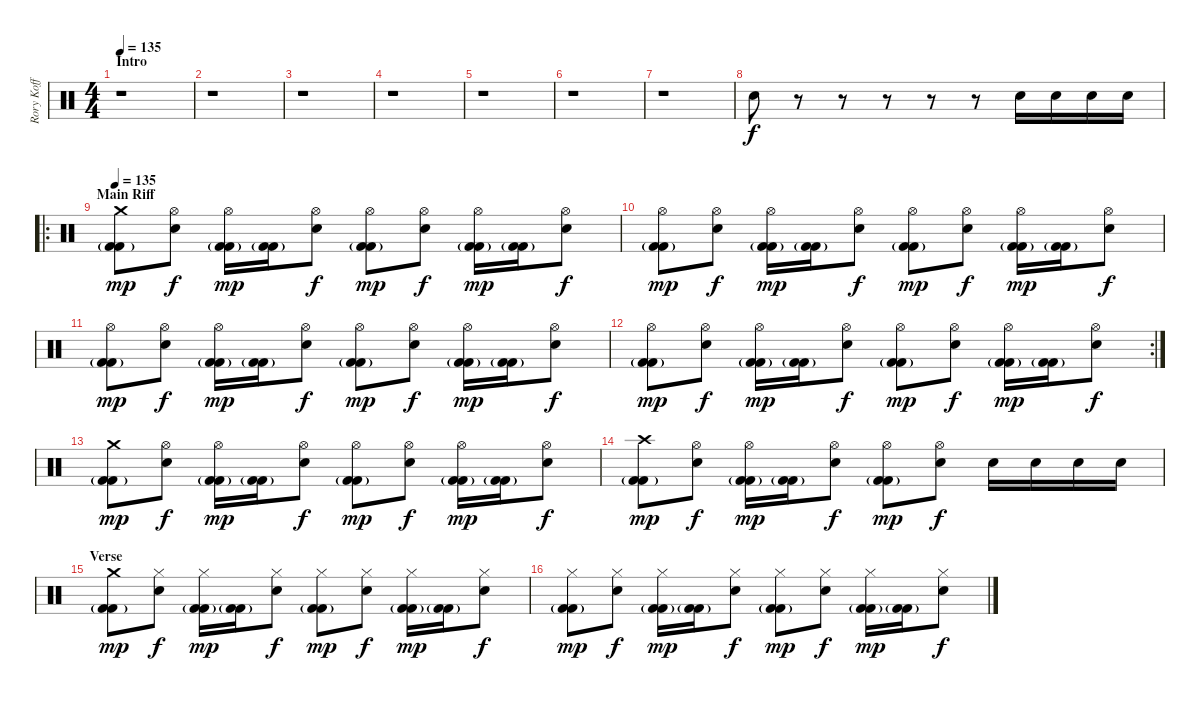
\track ("Rory Koff" "Rory Koff") {instrument percussion}
\staff {score}
\articulation defaults
\ts (4 4)
\section ("" "Intro")
\tempo 135
\tempo 130
\tempo 135
\clef neutral
\ks c
r.1{dy f} |
r.1 |
r.1 |
r.1 |
r.1 |
r.1 |
r.1 |
"Snare (hit) 2".8 r.8 r.8 r.8 r.8 r.8 "Snare (hit) 2".16 "Snare (hit) 2".16 "Snare (hit) 2".16 "Snare (hit) 2".16 |
\ro
\section ("" "Main Riff")
\tempo 135
("Crash medium (hit)" "Kick (hit) 2"{g} "Kick (hit) 2").8{dy mp} ("Hi-Hat (open)" "Snare (hit) 2").8{dy f} ("Hi-Hat (open)" "Kick (hit) 2"{g} "Kick (hit) 2").16{dy mp} ("Kick (hit) 2"{g} "Kick (hit) 2").16 ("Hi-Hat (open)" "Snare (hit) 2").8{dy f} ("Hi-Hat (open)" "Kick (hit) 2"{g} "Kick (hit) 2").8{dy mp} ("Hi-Hat (open)" "Snare (hit) 2").8{dy f} ("Hi-Hat (open)" "Kick (hit) 2"{g} "Kick (hit) 2").16{dy mp} ("Kick (hit) 2"{g} "Kick (hit) 2").16 ("Hi-Hat (open)" "Snare (hit) 2").8{dy f} |
("Hi-Hat (open)" "Kick (hit) 2"{g} "Kick (hit) 2").8{dy mp} ("Hi-Hat (open)" "Snare (hit) 2").8{dy f} ("Hi-Hat (open)" "Kick (hit) 2"{g} "Kick (hit) 2").16{dy mp} ("Kick (hit) 2"{g} "Kick (hit) 2").16 ("Hi-Hat (open)" "Snare (hit) 2").8{dy f} ("Hi-Hat (open)" "Kick (hit) 2"{g} "Kick (hit) 2").8{dy mp} ("Hi-Hat (open)" "Snare (hit) 2").8{dy f} ("Hi-Hat (open)" "Kick (hit) 2"{g} "Kick (hit) 2").16{dy mp} ("Kick (hit) 2"{g} "Kick (hit) 2").16 ("Hi-Hat (open)" "Snare (hit) 2").8{dy f} |
("Hi-Hat (open)" "Kick (hit) 2"{g} "Kick (hit) 2").8{dy mp} ("Hi-Hat (open)" "Snare (hit) 2").8{dy f} ("Hi-Hat (open)" "Kick (hit) 2"{g} "Kick (hit) 2").16{dy mp} ("Kick (hit) 2"{g} "Kick (hit) 2").16 ("Hi-Hat (open)" "Snare (hit) 2").8{dy f} ("Hi-Hat (open)" "Kick (hit) 2"{g} "Kick (hit) 2").8{dy mp} ("Hi-Hat (open)" "Snare (hit) 2").8{dy f} ("Hi-Hat (open)" "Kick (hit) 2"{g} "Kick (hit) 2").16{dy mp} ("Kick (hit) 2"{g} "Kick (hit) 2").16 ("Hi-Hat (open)" "Snare (hit) 2").8{dy f} |
\rc 2
("Hi-Hat (open)" "Kick (hit) 2"{g} "Kick (hit) 2").8{dy mp} ("Hi-Hat (open)" "Snare (hit) 2").8{dy f} ("Hi-Hat (open)" "Kick (hit) 2"{g} "Kick (hit) 2").16{dy mp} ("Kick (hit) 2"{g} "Kick (hit) 2").16 ("Hi-Hat (open)" "Snare (hit) 2").8{dy f} ("Hi-Hat (open)" "Kick (hit) 2"{g} "Kick (hit) 2").8{dy mp} ("Hi-Hat (open)" "Snare (hit) 2").8{dy f} ("Hi-Hat (open)" "Kick (hit) 2"{g} "Kick (hit) 2").16{dy mp} ("Kick (hit) 2"{g} "Kick (hit) 2").16 ("Hi-Hat (open)" "Snare (hit) 2").8{dy f} |
("Crash medium (hit)" "Kick (hit) 2"{g} "Kick (hit) 2").8{dy mp} ("Hi-Hat (open)" "Snare (hit) 2").8{dy f} ("Hi-Hat (open)" "Kick (hit) 2"{g} "Kick (hit) 2").16{dy mp} ("Kick (hit) 2"{g} "Kick (hit) 2").16 ("Hi-Hat (open)" "Snare (hit) 2").8{dy f} ("Hi-Hat (open)" "Kick (hit) 2"{g} "Kick (hit) 2").8{dy mp} ("Hi-Hat (open)" "Snare (hit) 2").8{dy f} ("Hi-Hat (open)" "Kick (hit) 2"{g} "Kick (hit) 2").16{dy mp} ("Kick (hit) 2"{g} "Kick (hit) 2").16 ("Hi-Hat (open)" "Snare (hit) 2").8{dy f} |
("Crash high (hit)" "Kick (hit) 2"{g} "Kick (hit) 2").8{dy mp} ("Hi-Hat (open)" "Snare (hit) 2").8{dy f} ("Hi-Hat (open)" "Kick (hit) 2"{g} "Kick (hit) 2").16{dy mp} ("Kick (hit) 2"{g} "Kick (hit) 2").16 ("Hi-Hat (open)" "Snare (hit) 2").8{dy f} ("Hi-Hat (open)" "Kick (hit) 2"{g} "Kick (hit) 2").8{dy mp} ("Hi-Hat (open)" "Snare (hit) 2").8{dy f} "Snare (hit) 2".16 "Snare (hit) 2".16 "Snare (hit) 2".16 "Snare (hit) 2".16 |
\section ("" "Verse")
("Crash medium (hit)" "Kick (hit) 2"{g} "Kick (hit) 2").8{dy mp} ("Hi-Hat (closed)" "Snare (hit) 2").8{dy f} ("Hi-Hat (closed)" "Kick (hit) 2"{g} "Kick (hit) 2").16{dy mp} ("Kick (hit) 2"{g} "Kick (hit) 2").16 ("Hi-Hat (closed)" "Snare (hit) 2").8{dy f} ("Hi-Hat (closed)" "Kick (hit) 2"{g} "Kick (hit) 2").8{dy mp} ("Hi-Hat (closed)" "Snare (hit) 2").8{dy f} ("Hi-Hat (closed)" "Kick (hit) 2"{g} "Kick (hit) 2").16{dy mp} ("Kick (hit) 2"{g} "Kick (hit) 2").16 ("Hi-Hat (closed)" "Snare (hit) 2").8{dy f} |
("Hi-Hat (closed)" "Kick (hit) 2"{g} "Kick (hit) 2").8{dy mp} ("Hi-Hat (closed)" "Snare (hit) 2").8{dy f} ("Hi-Hat (closed)" "Kick (hit) 2"{g} "Kick (hit) 2").16{dy mp} ("Kick (hit) 2"{g} "Kick (hit) 2").16 ("Hi-Hat (closed)" "Snare (hit) 2").8{dy f} ("Hi-Hat (closed)" "Kick (hit) 2"{g} "Kick (hit) 2").8{dy mp} ("Hi-Hat (closed)" "Snare (hit) 2").8{dy f} ("Hi-Hat (closed)" "Kick (hit) 2"{g} "Kick (hit) 2").16{dy mp} ("Kick (hit) 2"{g} "Kick (hit) 2").16 ("Hi-Hat (closed)" "Snare (hit) 2").8{dy f}
